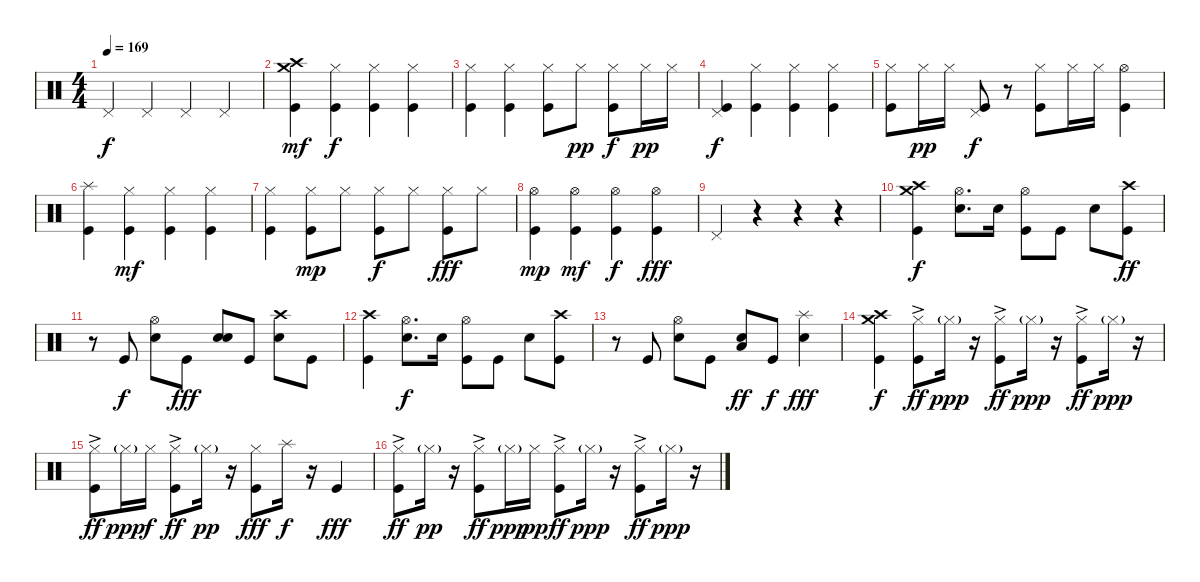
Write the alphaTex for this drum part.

\track "" {instrument percussion}
\staff {score}
\articulation defaults
\ts (4 4)
\tempo 169
\clef neutral
\ks c "Pedal Hi-Hat (hit)".4{dy f} "Pedal Hi-Hat (hit)".4 "Pedal Hi-Hat (hit)".4 "Pedal Hi-Hat (hit)".4
|
("Crash high (hit)" "Crash medium (hit)" "Kick (hit)").4{dy mf} ("Kick (hit)" "Hi-Hat (closed)").4{dy f} ("Kick (hit)" "Hi-Hat (closed)").4 ("Kick (hit)" "Hi-Hat (closed)").4 |
("Kick (hit)" "Hi-Hat (closed)").4 ("Kick (hit)" "Hi-Hat (closed)").4 ("Kick (hit)" "Hi-Hat (closed)").8 "Hi-Hat (closed)".8{dy pp} ("Kick (hit)" "Hi-Hat (closed)").8{dy f} "Hi-Hat (closed)".16{dy pp} "Hi-Hat (closed)".16 |
("Kick (hit)" "Pedal Hi-Hat (hit)").4{dy f} ("Kick (hit)" "Hi-Hat (closed)").4 ("Kick (hit)" "Hi-Hat (closed)").4 ("Kick (hit)" "Hi-Hat (closed)").4 |
("Kick (hit)" "Hi-Hat (closed)").8 "Hi-Hat (closed)".16{dy pp} "Hi-Hat (closed)".16 ("Kick (hit)" "Pedal Hi-Hat (hit)").8{dy f} r.8 ("Kick (hit)" "Hi-Hat (closed)").8 "Hi-Hat (closed)".16 "Hi-Hat (closed)".16 ("Hi-Hat (open)" "Kick (hit)").4 |
("Kick (hit)" "Splash (hit)").4 ("Kick (hit)" "Hi-Hat (closed)").4{dy mf} ("Kick (hit)" "Hi-Hat (closed)").4 ("Kick (hit)" "Hi-Hat (closed)").4 |
("Kick (hit)" "Hi-Hat (closed)").4 ("Kick (hit)" "Hi-Hat (closed)").8{dy mp} "Hi-Hat (closed)".8 ("Kick (hit)" "Hi-Hat (closed)").8{dy f} "Hi-Hat (closed)".8 ("Hi-Hat (closed)" "Kick (hit)").8{dy fff} "Hi-Hat (closed)".8 |
("Hi-Hat (open)" "Kick (hit)").4{dy mp} ("Kick (hit)" "Hi-Hat (open)").4{dy mf} ("Kick (hit)" "Hi-Hat (open)").4{dy f} ("Kick (hit)" "Hi-Hat (open)").4{dy fff} |
"Pedal Hi-Hat (hit)".4 r.4 r.4 r.4 |
("Crash medium (hit)" "Kick (hit)" "Crash high (hit)").4{dy f} ("Hi-Hat (open)" "Snare (hit) 2").8{d} "Snare (hit) 2".16 ("Hi-Hat (open)" "Kick (hit)").8 "Kick (hit)".8 "Snare (hit) 2".8 ("Crash high (hit)" "Kick (hit)").8{dy ff} |
r.8 "Kick (hit)".8{dy f} ("Hi-Hat (open)" "Snare (hit) 2").8 "Kick (hit)".8{dy fff} ("Electric Snare (hit)" "Snare (hit) 2").8 "Kick (hit)".8 ("Crash high (hit)" "Snare (hit) 2").8 "Kick (hit)".8 |
("Kick (hit)" "Crash high (hit)").4 ("Hi-Hat (open)" "Snare (hit) 2").8{d dy f} "Snare (hit) 2".16 ("Hi-Hat (open)" "Kick (hit)").8 "Kick (hit)".8 "Snare (hit) 2".8 ("Crash high (hit)" "Kick (hit)").8 |
r.8 "Kick (hit)".8 ("Hi-Hat (open)" "Snare (hit) 2").8 "Kick (hit)".8 ("Low Tom (hit)" "Snare (hit) 2").8{dy ff} "Kick (hit)".8{dy f} ("Splash (hit)" "Snare (hit) 2").4{dy fff} |
("Crash high (hit)" "Crash medium (hit)" "Kick (hit)").4{dy f} ("Kick (hit)" "Hi-Hat (closed)"{ac}).8{dy ff} "Hi-Hat (closed)"{g}.16{dy ppp} r.16 ("Kick (hit)" "Hi-Hat (closed)"{ac}).8{dy ff} "Hi-Hat (closed)"{g}.16{dy ppp} r.16 ("Kick (hit)" "Hi-Hat (closed)"{ac}).8{dy ff} "Hi-Hat (closed)"{g}.16{dy ppp} r.16 |
("Kick (hit)" "Hi-Hat (closed)"{ac}).8{dy ff} "Hi-Hat (closed)"{g}.16{dy ppp} "Hi-Hat (closed)".16{dy f} ("Kick (hit)" "Hi-Hat (closed)"{ac}).8{dy ff} "Hi-Hat (closed)"{g}.16{dy pp} r.16 ("Hi-Hat (closed)" "Kick (hit)").8{dy fff} "Splash (hit)".16{dy f} r.16 "Kick (hit)".4{dy fff} |
("Kick (hit)" "Hi-Hat (closed)"{ac}).8{dy ff} "Hi-Hat (closed)"{g}.16{dy pp} r.16 ("Kick (hit)" "Hi-Hat (closed)"{ac}).8{dy ff} "Hi-Hat (closed)"{g}.16{dy ppp} "Hi-Hat (closed)".16{dy pp} ("Kick (hit)" "Hi-Hat (closed)"{ac}).8{dy ff} "Hi-Hat (closed)"{g}.16{dy ppp} r.16 ("Kick (hit)" "Hi-Hat (closed)"{ac}).8{dy ff} "Hi-Hat (closed)"{g}.16{dy ppp} r.16
